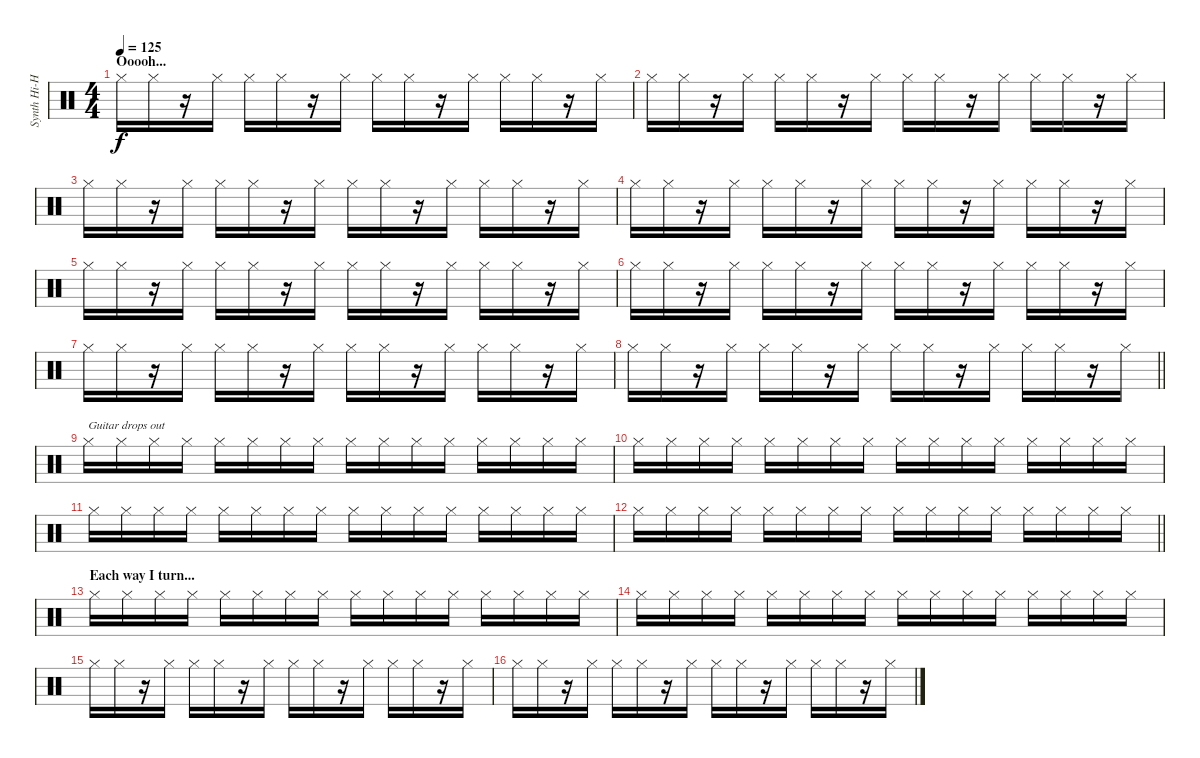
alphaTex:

\track ("Synth Hi-Hat (Gillian)" "Synth Hi-H") {instrument percussion}
\staff {score}
\articulation defaults
\ts (4 4)
\section ("" "Ooooh...")
\tempo 125
\clef neutral
\ks c "Hi-Hat (closed)".16{dy f} "Hi-Hat (closed)".16
r.16 "Hi-Hat (closed)".16 "Hi-Hat (closed)".16 "Hi-Hat (closed)".16 r.16 "Hi-Hat (closed)".16 "Hi-Hat (closed)".16 "Hi-Hat (closed)".16 r.16 "Hi-Hat (closed)".16 "Hi-Hat (closed)".16 "Hi-Hat (closed)".16 r.16 "Hi-Hat (closed)".16 |
"Hi-Hat (closed)".16 "Hi-Hat (closed)".16 r.16 "Hi-Hat (closed)".16 "Hi-Hat (closed)".16 "Hi-Hat (closed)".16 r.16 "Hi-Hat (closed)".16 "Hi-Hat (closed)".16 "Hi-Hat (closed)".16 r.16 "Hi-Hat (closed)".16 "Hi-Hat (closed)".16 "Hi-Hat (closed)".16 r.16 "Hi-Hat (closed)".16 |
"Hi-Hat (closed)".16 "Hi-Hat (closed)".16 r.16 "Hi-Hat (closed)".16 "Hi-Hat (closed)".16 "Hi-Hat (closed)".16 r.16 "Hi-Hat (closed)".16 "Hi-Hat (closed)".16 "Hi-Hat (closed)".16 r.16 "Hi-Hat (closed)".16 "Hi-Hat (closed)".16 "Hi-Hat (closed)".16 r.16 "Hi-Hat (closed)".16 |
"Hi-Hat (closed)".16 "Hi-Hat (closed)".16 r.16 "Hi-Hat (closed)".16 "Hi-Hat (closed)".16 "Hi-Hat (closed)".16 r.16 "Hi-Hat (closed)".16 "Hi-Hat (closed)".16 "Hi-Hat (closed)".16 r.16 "Hi-Hat (closed)".16 "Hi-Hat (closed)".16 "Hi-Hat (closed)".16 r.16 "Hi-Hat (closed)".16 |
"Hi-Hat (closed)".16 "Hi-Hat (closed)".16 r.16 "Hi-Hat (closed)".16 "Hi-Hat (closed)".16 "Hi-Hat (closed)".16 r.16 "Hi-Hat (closed)".16 "Hi-Hat (closed)".16 "Hi-Hat (closed)".16 r.16 "Hi-Hat (closed)".16 "Hi-Hat (closed)".16 "Hi-Hat (closed)".16 r.16 "Hi-Hat (closed)".16 |
"Hi-Hat (closed)".16 "Hi-Hat (closed)".16 r.16 "Hi-Hat (closed)".16 "Hi-Hat (closed)".16 "Hi-Hat (closed)".16 r.16 "Hi-Hat (closed)".16 "Hi-Hat (closed)".16 "Hi-Hat (closed)".16 r.16 "Hi-Hat (closed)".16 "Hi-Hat (closed)".16 "Hi-Hat (closed)".16 r.16 "Hi-Hat (closed)".16 |
"Hi-Hat (closed)".16 "Hi-Hat (closed)".16 r.16 "Hi-Hat (closed)".16 "Hi-Hat (closed)".16 "Hi-Hat (closed)".16 r.16 "Hi-Hat (closed)".16 "Hi-Hat (closed)".16 "Hi-Hat (closed)".16 r.16 "Hi-Hat (closed)".16 "Hi-Hat (closed)".16 "Hi-Hat (closed)".16 r.16 "Hi-Hat (closed)".16 |
\barLineRight lightlight "Hi-Hat (closed)".16 "Hi-Hat (closed)".16
r.16 "Hi-Hat (closed)".16 "Hi-Hat (closed)".16 "Hi-Hat (closed)".16 r.16 "Hi-Hat (closed)".16 "Hi-Hat (closed)".16 "Hi-Hat (closed)".16 r.16 "Hi-Hat (closed)".16 "Hi-Hat (closed)".16 "Hi-Hat (closed)".16 r.16 "Hi-Hat (closed)".16 |
"Hi-Hat (closed)".16{txt "Guitar drops out"} "Hi-Hat (closed)".16 "Hi-Hat (closed)".16 "Hi-Hat (closed)".16 "Hi-Hat (closed)".16 "Hi-Hat (closed)".16 "Hi-Hat (closed)".16 "Hi-Hat (closed)".16 "Hi-Hat (closed)".16 "Hi-Hat (closed)".16 "Hi-Hat (closed)".16 "Hi-Hat (closed)".16 "Hi-Hat (closed)".16 "Hi-Hat (closed)".16 "Hi-Hat (closed)".16 "Hi-Hat (closed)".16 |
"Hi-Hat (closed)".16 "Hi-Hat (closed)".16 "Hi-Hat (closed)".16 "Hi-Hat (closed)".16 "Hi-Hat (closed)".16 "Hi-Hat (closed)".16 "Hi-Hat (closed)".16 "Hi-Hat (closed)".16 "Hi-Hat (closed)".16 "Hi-Hat (closed)".16 "Hi-Hat (closed)".16 "Hi-Hat (closed)".16 "Hi-Hat (closed)".16 "Hi-Hat (closed)".16 "Hi-Hat (closed)".16 "Hi-Hat (closed)".16 |
"Hi-Hat (closed)".16 "Hi-Hat (closed)".16 "Hi-Hat (closed)".16 "Hi-Hat (closed)".16 "Hi-Hat (closed)".16 "Hi-Hat (closed)".16 "Hi-Hat (closed)".16 "Hi-Hat (closed)".16 "Hi-Hat (closed)".16 "Hi-Hat (closed)".16 "Hi-Hat (closed)".16 "Hi-Hat (closed)".16 "Hi-Hat (closed)".16 "Hi-Hat (closed)".16 "Hi-Hat (closed)".16 "Hi-Hat (closed)".16 |
\barLineRight lightlight "Hi-Hat (closed)".16 "Hi-Hat (closed)".16 "Hi-Hat (closed)".16 "Hi-Hat (closed)".16 "Hi-Hat (closed)".16 "Hi-Hat (closed)".16 "Hi-Hat (closed)".16 "Hi-Hat (closed)".16 "Hi-Hat (closed)".16 "Hi-Hat (closed)".16 "Hi-Hat (closed)".16 "Hi-Hat (closed)".16 "Hi-Hat (closed)".16 "Hi-Hat (closed)".16 "Hi-Hat (closed)".16 "Hi-Hat (closed)".16
|
\section ("" "Each way I turn...")
"Hi-Hat (closed)".16 "Hi-Hat (closed)".16 "Hi-Hat (closed)".16 "Hi-Hat (closed)".16 "Hi-Hat (closed)".16 "Hi-Hat (closed)".16 "Hi-Hat (closed)".16 "Hi-Hat (closed)".16 "Hi-Hat (closed)".16 "Hi-Hat (closed)".16 "Hi-Hat (closed)".16 "Hi-Hat (closed)".16 "Hi-Hat (closed)".16 "Hi-Hat (closed)".16 "Hi-Hat (closed)".16 "Hi-Hat (closed)".16 |
"Hi-Hat (closed)".16 "Hi-Hat (closed)".16 "Hi-Hat (closed)".16 "Hi-Hat (closed)".16 "Hi-Hat (closed)".16 "Hi-Hat (closed)".16 "Hi-Hat (closed)".16 "Hi-Hat (closed)".16 "Hi-Hat (closed)".16 "Hi-Hat (closed)".16 "Hi-Hat (closed)".16 "Hi-Hat (closed)".16 "Hi-Hat (closed)".16 "Hi-Hat (closed)".16 "Hi-Hat (closed)".16 "Hi-Hat (closed)".16 |
"Hi-Hat (closed)".16 "Hi-Hat (closed)".16 r.16 "Hi-Hat (closed)".16 "Hi-Hat (closed)".16 "Hi-Hat (closed)".16 r.16 "Hi-Hat (closed)".16 "Hi-Hat (closed)".16 "Hi-Hat (closed)".16 r.16 "Hi-Hat (closed)".16 "Hi-Hat (closed)".16 "Hi-Hat (closed)".16 r.16 "Hi-Hat (closed)".16 |
"Hi-Hat (closed)".16 "Hi-Hat (closed)".16 r.16 "Hi-Hat (closed)".16 "Hi-Hat (closed)".16 "Hi-Hat (closed)".16 r.16 "Hi-Hat (closed)".16 "Hi-Hat (closed)".16 "Hi-Hat (closed)".16 r.16 "Hi-Hat (closed)".16 "Hi-Hat (closed)".16 "Hi-Hat (closed)".16 r.16 "Hi-Hat (closed)".16
